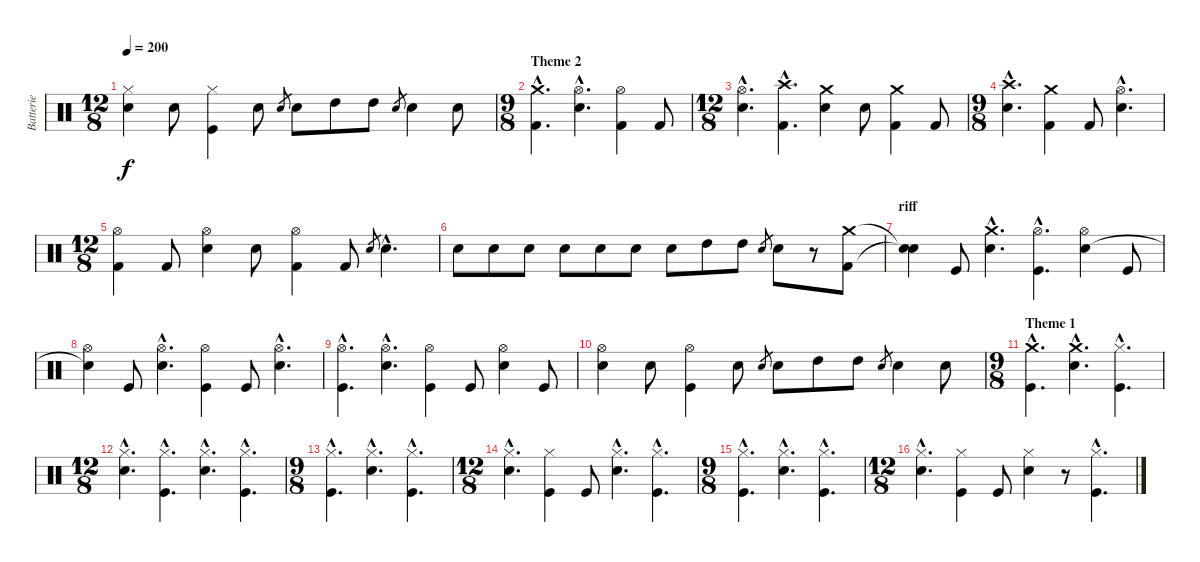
\track ("Batterie" "Batterie") {instrument percussion}
\staff {score}
\articulation defaults
\ts (12 8)
\tempo 200
\clef neutral
\ks c
("Hi-Hat (closed)" "Electric Snare (hit)").4{dy f} "Electric Snare (hit)".8 ("Hi-Hat (closed)" "Kick (hit)").4 "Electric Snare (hit)".8 "Electric Snare (hit)".8{gr} "Electric Snare (hit)".8 "High Tom (hit)".8 "High Tom (hit)".8 "Electric Snare (hit)".8{gr} "Electric Snare (hit)".4 "Electric Snare (hit)".8 |
\ts (9 8)
\section ("" "Theme 2")
("Crash medium (hit)"{hac} "Kick (hit) 2"{hac}).4{d} ("Hi-Hat (open)"{hac} "Electric Snare (hit)"{hac}).4{d} ("Hi-Hat (open)" "Kick (hit) 2").4 "Kick (hit) 2".8 |
\ts (12 8)
("Hi-Hat (open)"{hac} "Electric Snare (hit)"{hac}).4{d} ("Crash high (hit)"{hac} "Kick (hit) 2"{hac}).4{d} ("Crash medium (hit)" "Electric Snare (hit)").4 "Electric Snare (hit)".8 ("Crash medium (hit)" "Kick (hit) 2").4 "Kick (hit) 2".8 |
\ts (9 8)
("Crash high (hit)"{hac} "Electric Snare (hit)"{hac}).4{d} ("Crash medium (hit)" "Kick (hit) 2").4 "Kick (hit) 2".8 ("Hi-Hat (open)"{hac} "Electric Snare (hit)"{hac}).4{d} |
\ts (12 8)
("Hi-Hat (open)" "Kick (hit) 2").4 "Kick (hit) 2".8 ("Hi-Hat (open)" "Electric Snare (hit)").4 "Electric Snare (hit)".8 ("Hi-Hat (open)" "Kick (hit) 2").4 "Kick (hit) 2".8 "Electric Snare (hit)".8{gr} "Electric Snare (hit)"{hac}.4{d} |
"Electric Snare (hit)".8 "Electric Snare (hit)".8 "Electric Snare (hit)".8 "Electric Snare (hit)".8 "Electric Snare (hit)".8 "Electric Snare (hit)".8 "Electric Snare (hit)".8 "High Tom (hit)".8 "High Tom (hit)".8 "Electric Snare (hit)".8{gr} "Electric Snare (hit)".8 r.8 ("Crash medium (hit)" "Kick (hit) 2").8 |
\section ("" "riff")
("Snare (hit)"{t} "Snare (hit)"{t}).4 "Kick (hit)".8 ("Crash medium (hit)"{hac} "Electric Snare (hit)"{hac}).4{d} ("Hi-Hat (open)"{hac} "Kick (hit)"{hac}).4{d} ("Hi-Hat (open)" "Electric Snare (hit)").4 "Kick (hit)".8 |
("Hi-Hat (open)" "Snare (hit)"{t}).4 "Kick (hit)".8 ("Hi-Hat (open)"{hac} "Electric Snare (hit)"{hac}).4{d} ("Hi-Hat (open)" "Kick (hit)").4 "Kick (hit)".8 ("Hi-Hat (open)"{hac} "Electric Snare (hit)"{hac}).4{d} |
("Hi-Hat (open)"{hac} "Kick (hit)"{hac}).4{d} ("Hi-Hat (open)"{hac} "Electric Snare (hit)"{hac}).4{d} ("Hi-Hat (open)" "Kick (hit)").4 "Kick (hit)".8 ("Hi-Hat (open)" "Electric Snare (hit)").4 "Kick (hit)".8 |
("Hi-Hat (open)" "Electric Snare (hit)").4 "Electric Snare (hit)".8 ("Hi-Hat (open)" "Kick (hit)").4 "Electric Snare (hit)".8 "Electric Snare (hit)".8{gr} "Electric Snare (hit)".8 "High Tom (hit)".8 "High Tom (hit)".8 "Electric Snare (hit)".8{gr} "Electric Snare (hit)".4 "Electric Snare (hit)".8 |
\ts (9 8)
\section ("" "Theme 1")
("Crash medium (hit)"{hac} "Kick (hit)"{hac}).4{d} ("Crash medium (hit)"{hac} "Electric Snare (hit)"{hac}).4{d} ("Hi-Hat (closed)"{hac} "Kick (hit)"{hac}).4{d} |
\ts (12 8)
("Hi-Hat (closed)"{hac} "Electric Snare (hit)"{hac}).4{d} ("Hi-Hat (closed)"{hac} "Kick (hit)"{hac}).4{d} ("Hi-Hat (closed)"{hac} "Electric Snare (hit)"{hac}).4{d} ("Hi-Hat (closed)"{hac} "Kick (hit)"{hac}).4{d} |
\ts (9 8)
("Hi-Hat (closed)"{hac} "Kick (hit)"{hac}).4{d} ("Hi-Hat (closed)"{hac} "Electric Snare (hit)"{hac}).4{d} ("Hi-Hat (closed)"{hac} "Kick (hit)"{hac}).4{d} |
\ts (12 8)
("Hi-Hat (closed)"{hac} "Electric Snare (hit)"{hac}).4{d} ("Hi-Hat (closed)" "Kick (hit)").4 "Kick (hit)".8 ("Hi-Hat (closed)"{hac} "Electric Snare (hit)"{hac}).4{d} ("Hi-Hat (closed)"{hac} "Kick (hit)"{hac}).4{d} |
\ts (9 8)
("Hi-Hat (closed)"{hac} "Kick (hit)"{hac}).4{d} ("Hi-Hat (closed)"{hac} "Electric Snare (hit)"{hac}).4{d} ("Hi-Hat (closed)"{hac} "Kick (hit)"{hac}).4{d} |
\ts (12 8)
("Hi-Hat (closed)"{hac} "Electric Snare (hit)"{hac}).4{d} ("Hi-Hat (closed)" "Kick (hit)").4 "Kick (hit)".8 ("Hi-Hat (closed)" "Electric Snare (hit)").4 r.8 ("Hi-Hat (closed)"{hac} "Kick (hit)"{hac}).4{d}
